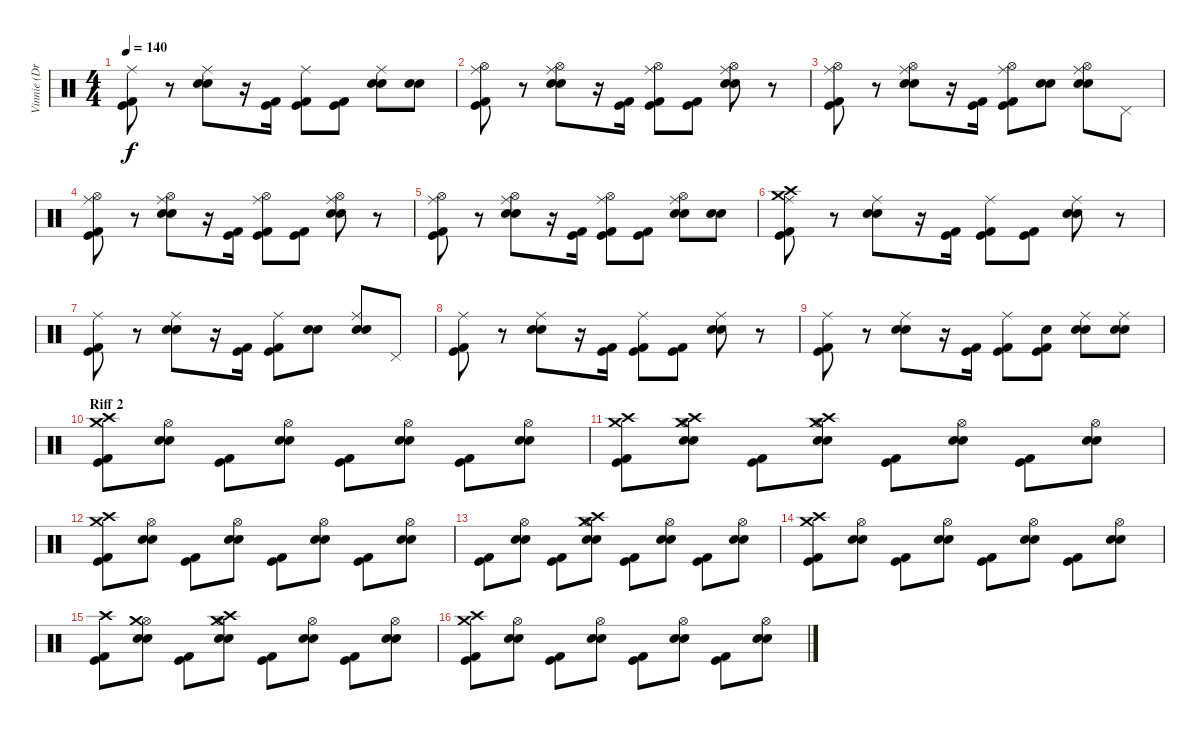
\track ("Vinnie (Drums)" "Vinnie (Dr") {instrument percussion}
\staff {score}
\articulation defaults
\ts (4 4)
\tempo 140
\clef neutral
\ks c
("Kick (hit) 2" "Kick (hit)" "Ride (middle)").8{dy f} r.8 ("Snare (hit) 2" "Electric Snare (hit)" "Ride (middle)").8 r.16 ("Kick (hit) 2" "Kick (hit)").16 ("Kick (hit) 2" "Kick (hit)" "Ride (middle)").8 ("Kick (hit) 2" "Kick (hit)").8 ("Snare (hit) 2" "Electric Snare (hit)" "Ride (middle)").8 ("Snare (hit) 2" "Electric Snare (hit)").8 |
("Kick (hit) 2" "Kick (hit)" "Ride (middle)" "Hi-Hat (open)").8 r.8 ("Snare (hit) 2" "Electric Snare (hit)" "Ride (middle)" "Hi-Hat (open)").8 r.16 ("Kick (hit) 2" "Kick (hit)").16 ("Kick (hit) 2" "Kick (hit)" "Ride (middle)" "Hi-Hat (open)").8 ("Kick (hit) 2" "Kick (hit)").8 ("Snare (hit) 2" "Electric Snare (hit)" "Ride (middle)" "Hi-Hat (open)").8 r.8 |
("Kick (hit) 2" "Kick (hit)" "Ride (middle)" "Hi-Hat (open)").8 r.8 ("Snare (hit) 2" "Electric Snare (hit)" "Ride (middle)" "Hi-Hat (open)").8 r.16 ("Kick (hit) 2" "Kick (hit)").16 ("Kick (hit) 2" "Kick (hit)" "Ride (middle)" "Hi-Hat (open)").8 ("Snare (hit) 2" "Electric Snare (hit)").8 ("Snare (hit) 2" "Electric Snare (hit)" "Ride (middle)" "Hi-Hat (open)").8 "Pedal Hi-Hat (hit)".8 |
("Kick (hit) 2" "Kick (hit)" "Ride (middle)" "Hi-Hat (open)").8 r.8 ("Snare (hit) 2" "Electric Snare (hit)" "Ride (middle)" "Hi-Hat (open)").8 r.16 ("Kick (hit) 2" "Kick (hit)").16 ("Kick (hit) 2" "Kick (hit)" "Ride (middle)" "Hi-Hat (open)").8 ("Kick (hit) 2" "Kick (hit)").8 ("Snare (hit) 2" "Electric Snare (hit)" "Ride (middle)" "Hi-Hat (open)").8 r.8 |
("Kick (hit) 2" "Kick (hit)" "Ride (middle)" "Hi-Hat (open)").8 r.8 ("Snare (hit) 2" "Electric Snare (hit)" "Ride (middle)" "Hi-Hat (open)").8 r.16 ("Kick (hit) 2" "Kick (hit)").16 ("Kick (hit) 2" "Kick (hit)" "Ride (middle)" "Hi-Hat (open)").8 ("Kick (hit) 2" "Kick (hit)").8 ("Snare (hit) 2" "Electric Snare (hit)" "Ride (middle)" "Hi-Hat (open)").8 ("Snare (hit) 2" "Electric Snare (hit)").8 |
("Kick (hit) 2" "Kick (hit)" "Crash medium (hit)" "Ride (middle)" "Crash high (hit)").8 r.8 ("Snare (hit) 2" "Electric Snare (hit)" "Ride (middle)").8 r.16 ("Kick (hit) 2" "Kick (hit)").16 ("Kick (hit) 2" "Kick (hit)" "Ride (middle)").8 ("Kick (hit) 2" "Kick (hit)").8 ("Snare (hit) 2" "Electric Snare (hit)" "Ride (middle)").8 r.8 |
("Kick (hit) 2" "Kick (hit)" "Ride (middle)").8 r.8 ("Snare (hit) 2" "Electric Snare (hit)" "Ride (middle)").8 r.16 ("Kick (hit) 2" "Kick (hit)").16 ("Kick (hit) 2" "Kick (hit)" "Ride (middle)").8 ("Snare (hit) 2" "Electric Snare (hit)").8 ("Snare (hit) 2" "Electric Snare (hit)" "Ride (middle)").8 "Pedal Hi-Hat (hit)".8 |
("Kick (hit) 2" "Kick (hit)" "Ride (middle)").8 r.8 ("Snare (hit) 2" "Electric Snare (hit)" "Ride (middle)").8 r.16 ("Kick (hit) 2" "Kick (hit)").16 ("Kick (hit) 2" "Kick (hit)" "Ride (middle)").8 ("Kick (hit) 2" "Kick (hit)").8 ("Snare (hit) 2" "Electric Snare (hit)" "Ride (middle)").8 r.8 |
("Kick (hit) 2" "Kick (hit)" "Ride (middle)").8 r.8 ("Snare (hit) 2" "Electric Snare (hit)" "Ride (middle)").8 r.16 ("Kick (hit) 2" "Kick (hit)").16 ("Kick (hit) 2" "Kick (hit)" "Ride (middle)").8 ("Kick (hit) 2" "Kick (hit)" "Electric Snare (hit)").8 ("Snare (hit) 2" "Electric Snare (hit)" "Ride (middle)").8 ("Snare (hit) 2" "Electric Snare (hit)" "Ride (middle)").8 |
\section ("" "Riff 2")
("Kick (hit) 2" "Kick (hit)" "Crash medium (hit)" "Crash high (hit)").8 ("Snare (hit) 2" "Electric Snare (hit)" "Hi-Hat (open)").8 ("Kick (hit) 2" "Kick (hit)").8 ("Snare (hit) 2" "Electric Snare (hit)" "Hi-Hat (open)").8 ("Kick (hit) 2" "Kick (hit)").8 ("Snare (hit) 2" "Electric Snare (hit)" "Hi-Hat (open)").8 ("Kick (hit) 2" "Kick (hit)").8 ("Snare (hit) 2" "Electric Snare (hit)" "Hi-Hat (open)").8 |
("Kick (hit) 2" "Kick (hit)" "Crash medium (hit)" "Crash high (hit)").8 ("Snare (hit) 2" "Electric Snare (hit)" "Hi-Hat (open)" "Crash high (hit)" "Crash medium (hit)").8 ("Kick (hit) 2" "Kick (hit)").8 ("Snare (hit) 2" "Electric Snare (hit)" "Hi-Hat (open)" "Crash medium (hit)" "Crash high (hit)").8 ("Kick (hit) 2" "Kick (hit)").8 ("Snare (hit) 2" "Electric Snare (hit)" "Hi-Hat (open)").8 ("Kick (hit) 2" "Kick (hit)").8 ("Snare (hit) 2" "Electric Snare (hit)" "Hi-Hat (open)").8 |
("Kick (hit) 2" "Kick (hit)" "Crash medium (hit)" "Crash high (hit)").8 ("Snare (hit) 2" "Electric Snare (hit)" "Hi-Hat (open)").8 ("Kick (hit) 2" "Kick (hit)").8 ("Snare (hit) 2" "Electric Snare (hit)" "Hi-Hat (open)").8 ("Kick (hit) 2" "Kick (hit)").8 ("Snare (hit) 2" "Electric Snare (hit)" "Hi-Hat (open)").8 ("Kick (hit) 2" "Kick (hit)").8 ("Snare (hit) 2" "Electric Snare (hit)" "Hi-Hat (open)").8 |
("Kick (hit) 2" "Kick (hit)").8 ("Snare (hit) 2" "Electric Snare (hit)" "Hi-Hat (open)").8 ("Kick (hit) 2" "Kick (hit)").8 ("Snare (hit) 2" "Electric Snare (hit)" "Hi-Hat (open)" "Crash medium (hit)" "Crash high (hit)").8 ("Kick (hit) 2" "Kick (hit)").8 ("Snare (hit) 2" "Electric Snare (hit)" "Hi-Hat (open)").8 ("Kick (hit) 2" "Kick (hit)").8 ("Snare (hit) 2" "Electric Snare (hit)" "Hi-Hat (open)").8 |
("Kick (hit) 2" "Kick (hit)" "Crash medium (hit)" "Crash high (hit)").8 ("Snare (hit) 2" "Electric Snare (hit)" "Hi-Hat (open)").8 ("Kick (hit) 2" "Kick (hit)").8 ("Snare (hit) 2" "Electric Snare (hit)" "Hi-Hat (open)").8 ("Kick (hit) 2" "Kick (hit)").8 ("Snare (hit) 2" "Electric Snare (hit)" "Hi-Hat (open)").8 ("Kick (hit) 2" "Kick (hit)").8 ("Snare (hit) 2" "Electric Snare (hit)" "Hi-Hat (open)").8 |
("Kick (hit) 2" "Kick (hit)" "Crash high (hit)").8 ("Snare (hit) 2" "Electric Snare (hit)" "Hi-Hat (open)" "Crash medium (hit)").8 ("Kick (hit) 2" "Kick (hit)").8 ("Snare (hit) 2" "Electric Snare (hit)" "Hi-Hat (open)" "Crash medium (hit)" "Crash high (hit)").8 ("Kick (hit) 2" "Kick (hit)").8 ("Snare (hit) 2" "Electric Snare (hit)" "Hi-Hat (open)").8 ("Kick (hit) 2" "Kick (hit)").8 ("Snare (hit) 2" "Electric Snare (hit)" "Hi-Hat (open)").8 |
("Kick (hit) 2" "Kick (hit)" "Crash medium (hit)" "Crash high (hit)").8 ("Snare (hit) 2" "Electric Snare (hit)" "Hi-Hat (open)").8 ("Kick (hit) 2" "Kick (hit)").8 ("Snare (hit) 2" "Electric Snare (hit)" "Hi-Hat (open)").8 ("Kick (hit) 2" "Kick (hit)").8 ("Snare (hit) 2" "Electric Snare (hit)" "Hi-Hat (open)").8 ("Kick (hit) 2" "Kick (hit)").8 ("Snare (hit) 2" "Electric Snare (hit)" "Hi-Hat (open)").8
